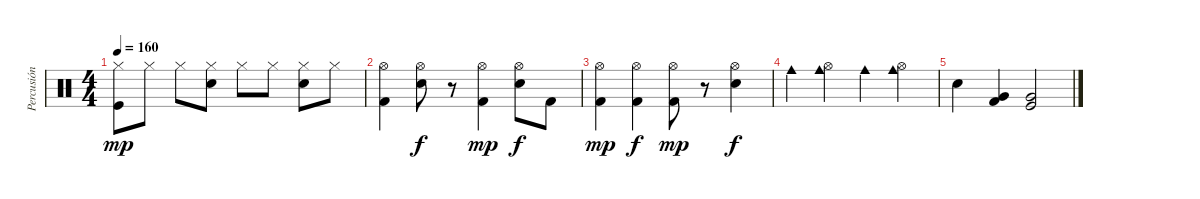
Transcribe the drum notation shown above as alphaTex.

\track ("Percusión" "Percusión") {instrument percussion}
\staff {score}
\articulation defaults
\ts (4 4)
\tempo 160
\clef neutral
\ks c
("Hi-Hat (closed)" "Kick (hit)").8{dy mp} "Hi-Hat (closed)".8 "Hi-Hat (closed)".8 ("Hi-Hat (closed)" "Snare (hit) 2").8 "Hi-Hat (closed)".8 "Hi-Hat (closed)".8 ("Hi-Hat (closed)" "Snare (hit) 2").8 "Hi-Hat (closed)".8 |
("Hi-Hat (open)" "Kick (hit) 2").4 ("Hi-Hat (open)" "Snare (hit) 2").8{dy f} r.8 ("Hi-Hat (open)" "Kick (hit) 2").4{dy mp} ("Hi-Hat (open)" "Snare (hit) 2").8{dy f} "Kick (hit) 2".8 |
("Hi-Hat (open)" "Kick (hit) 2").4{dy mp} ("Hi-Hat (open)" "Kick (hit) 2").4{dy f} ("Hi-Hat (open)" "Kick (hit) 2").8{dy mp} r.8 ("Hi-Hat (open)" "Snare (hit) 2").4{dy f} |
"Cowbell medium (hit)".4 ("Cowbell medium (hit)" "Hi-Hat (open)").4 "Cowbell medium (hit)".4 ("Cowbell medium (hit)" "Hi-Hat (open)").4 |
"Snare (hit) 2".4 ("Very Low Tom (hit)" "Kick (hit) 2").4 ("Very Low Tom (hit)" "Kick (hit)").2
